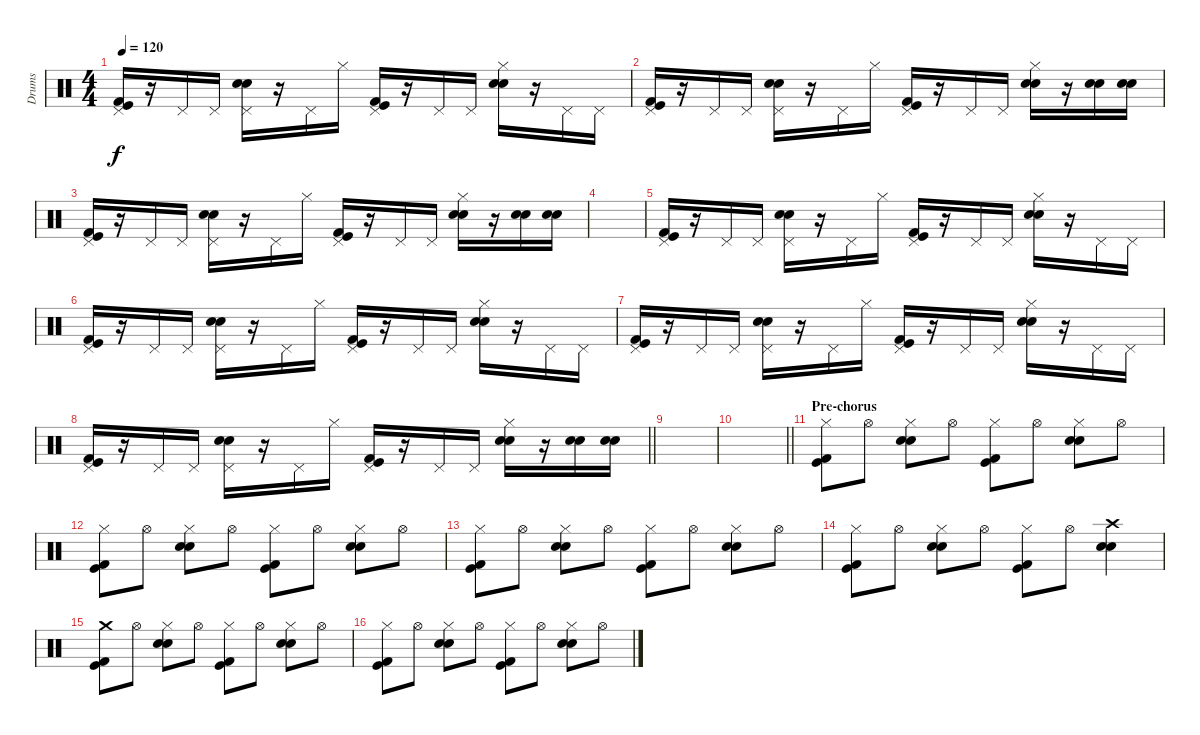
\track ("Drums" "Drums") {instrument percussion}
\staff {score}
\articulation defaults
\ts (4 4)
\tempo 120
\clef neutral
\ks c
("Pedal Hi-Hat (hit)" "Kick (hit)" "Kick (hit) 2").16{dy f} r.16 "Pedal Hi-Hat (hit)".16 "Pedal Hi-Hat (hit)".16 ("Pedal Hi-Hat (hit)" "Electric Snare (hit)" "Electric Snare (hit)").16 r.16 "Pedal Hi-Hat (hit)".16 "Hi-Hat (closed)".16 ("Pedal Hi-Hat (hit)" "Kick (hit)" "Kick (hit) 2").16 r.16 "Pedal Hi-Hat (hit)".16 "Pedal Hi-Hat (hit)".16 ("Hi-Hat (closed)" "Electric Snare (hit)" "Electric Snare (hit)").16 r.16 "Pedal Hi-Hat (hit)".16 "Pedal Hi-Hat (hit)".16 |
("Pedal Hi-Hat (hit)" "Kick (hit)" "Kick (hit) 2").16 r.16 "Pedal Hi-Hat (hit)".16 "Pedal Hi-Hat (hit)".16 ("Pedal Hi-Hat (hit)" "Electric Snare (hit)" "Electric Snare (hit)").16 r.16 "Pedal Hi-Hat (hit)".16 "Hi-Hat (closed)".16 ("Pedal Hi-Hat (hit)" "Kick (hit)" "Kick (hit) 2").16 r.16 "Pedal Hi-Hat (hit)".16 "Pedal Hi-Hat (hit)".16 ("Hi-Hat (closed)" "Electric Snare (hit)" "Electric Snare (hit)").16 r.16 ("Electric Snare (hit)" "Electric Snare (hit)").16 ("Electric Snare (hit)" "Electric Snare (hit)").16 |
("Pedal Hi-Hat (hit)" "Kick (hit)" "Kick (hit) 2").16 r.16 "Pedal Hi-Hat (hit)".16 "Pedal Hi-Hat (hit)".16 ("Pedal Hi-Hat (hit)" "Electric Snare (hit)" "Electric Snare (hit)").16 r.16 "Pedal Hi-Hat (hit)".16 "Hi-Hat (closed)".16 ("Pedal Hi-Hat (hit)" "Kick (hit)" "Kick (hit) 2").16 r.16 "Pedal Hi-Hat (hit)".16 "Pedal Hi-Hat (hit)".16 ("Hi-Hat (closed)" "Electric Snare (hit)" "Electric Snare (hit)").16 r.16 ("Electric Snare (hit)" "Electric Snare (hit)").16 ("Electric Snare (hit)" "Electric Snare (hit)").16 |
|
("Pedal Hi-Hat (hit)" "Kick (hit)" "Kick (hit) 2").16 r.16 "Pedal Hi-Hat (hit)".16 "Pedal Hi-Hat (hit)".16 ("Pedal Hi-Hat (hit)" "Electric Snare (hit)" "Electric Snare (hit)").16 r.16 "Pedal Hi-Hat (hit)".16 "Hi-Hat (closed)".16 ("Pedal Hi-Hat (hit)" "Kick (hit)" "Kick (hit) 2").16 r.16 "Pedal Hi-Hat (hit)".16 "Pedal Hi-Hat (hit)".16 ("Hi-Hat (closed)" "Electric Snare (hit)" "Electric Snare (hit)").16 r.16 "Pedal Hi-Hat (hit)".16 "Pedal Hi-Hat (hit)".16 |
("Pedal Hi-Hat (hit)" "Kick (hit)" "Kick (hit) 2").16 r.16 "Pedal Hi-Hat (hit)".16 "Pedal Hi-Hat (hit)".16 ("Pedal Hi-Hat (hit)" "Electric Snare (hit)" "Electric Snare (hit)").16 r.16 "Pedal Hi-Hat (hit)".16 "Hi-Hat (closed)".16 ("Pedal Hi-Hat (hit)" "Kick (hit)" "Kick (hit) 2").16 r.16 "Pedal Hi-Hat (hit)".16 "Pedal Hi-Hat (hit)".16 ("Hi-Hat (closed)" "Electric Snare (hit)" "Electric Snare (hit)").16 r.16 "Pedal Hi-Hat (hit)".16 "Pedal Hi-Hat (hit)".16 |
("Pedal Hi-Hat (hit)" "Kick (hit)" "Kick (hit) 2").16 r.16 "Pedal Hi-Hat (hit)".16 "Pedal Hi-Hat (hit)".16 ("Pedal Hi-Hat (hit)" "Electric Snare (hit)" "Electric Snare (hit)").16 r.16 "Pedal Hi-Hat (hit)".16 "Hi-Hat (closed)".16 ("Pedal Hi-Hat (hit)" "Kick (hit)" "Kick (hit) 2").16 r.16 "Pedal Hi-Hat (hit)".16 "Pedal Hi-Hat (hit)".16 ("Hi-Hat (closed)" "Electric Snare (hit)" "Electric Snare (hit)").16 r.16 "Pedal Hi-Hat (hit)".16 "Pedal Hi-Hat (hit)".16 |
\barLineRight lightlight
("Pedal Hi-Hat (hit)" "Kick (hit)" "Kick (hit) 2").16 r.16 "Pedal Hi-Hat (hit)".16 "Pedal Hi-Hat (hit)".16 ("Pedal Hi-Hat (hit)" "Electric Snare (hit)" "Electric Snare (hit)").16 r.16 "Pedal Hi-Hat (hit)".16 "Hi-Hat (closed)".16 ("Pedal Hi-Hat (hit)" "Kick (hit)" "Kick (hit) 2").16 r.16 "Pedal Hi-Hat (hit)".16 "Pedal Hi-Hat (hit)".16 ("Hi-Hat (closed)" "Electric Snare (hit)" "Electric Snare (hit)").16 r.16 ("Electric Snare (hit)" "Electric Snare (hit)").16 ("Electric Snare (hit)" "Electric Snare (hit)").16 |
|
\barLineRight lightlight
|
\section ("" "Pre-chorus")
("Hi-Hat (closed)" "Kick (hit) 2" "Kick (hit)").8 "Hi-Hat (open)".8 ("Hi-Hat (closed)" "Electric Snare (hit)" "Electric Snare (hit)").8 "Hi-Hat (open)".8 ("Hi-Hat (closed)" "Kick (hit) 2" "Kick (hit)").8 "Hi-Hat (open)".8 ("Hi-Hat (closed)" "Electric Snare (hit)" "Electric Snare (hit)").8 "Hi-Hat (open)".8 |
("Hi-Hat (closed)" "Kick (hit) 2" "Kick (hit)").8 "Hi-Hat (open)".8 ("Hi-Hat (closed)" "Electric Snare (hit)" "Electric Snare (hit)").8 "Hi-Hat (open)".8 ("Hi-Hat (closed)" "Kick (hit) 2" "Kick (hit)").8 "Hi-Hat (open)".8 ("Hi-Hat (closed)" "Electric Snare (hit)" "Electric Snare (hit)").8 "Hi-Hat (open)".8 |
("Hi-Hat (closed)" "Kick (hit) 2" "Kick (hit)").8 "Hi-Hat (open)".8 ("Hi-Hat (closed)" "Electric Snare (hit)" "Electric Snare (hit)").8 "Hi-Hat (open)".8 ("Hi-Hat (closed)" "Kick (hit) 2" "Kick (hit)").8 "Hi-Hat (open)".8 ("Hi-Hat (closed)" "Electric Snare (hit)" "Electric Snare (hit)").8 "Hi-Hat (open)".8 |
("Hi-Hat (closed)" "Kick (hit) 2" "Kick (hit)").8 "Hi-Hat (open)".8 ("Hi-Hat (closed)" "Electric Snare (hit)" "Electric Snare (hit)").8 "Hi-Hat (open)".8 ("Hi-Hat (closed)" "Kick (hit) 2" "Kick (hit)").8 "Hi-Hat (open)".8 ("Crash high (hit)" "Electric Snare (hit)" "Electric Snare (hit)").4 |
("Crash medium (hit)" "Kick (hit) 2" "Kick (hit)").8 "Hi-Hat (open)".8 ("Hi-Hat (closed)" "Electric Snare (hit)" "Electric Snare (hit)").8 "Hi-Hat (open)".8 ("Hi-Hat (closed)" "Kick (hit) 2" "Kick (hit)").8 "Hi-Hat (open)".8 ("Hi-Hat (closed)" "Electric Snare (hit)" "Electric Snare (hit)").8 "Hi-Hat (open)".8 |
("Hi-Hat (closed)" "Kick (hit) 2" "Kick (hit)").8 "Hi-Hat (open)".8 ("Hi-Hat (closed)" "Electric Snare (hit)" "Electric Snare (hit)").8 "Hi-Hat (open)".8 ("Hi-Hat (closed)" "Kick (hit) 2" "Kick (hit)").8 "Hi-Hat (open)".8 ("Hi-Hat (closed)" "Electric Snare (hit)" "Electric Snare (hit)").8 "Hi-Hat (open)".8
